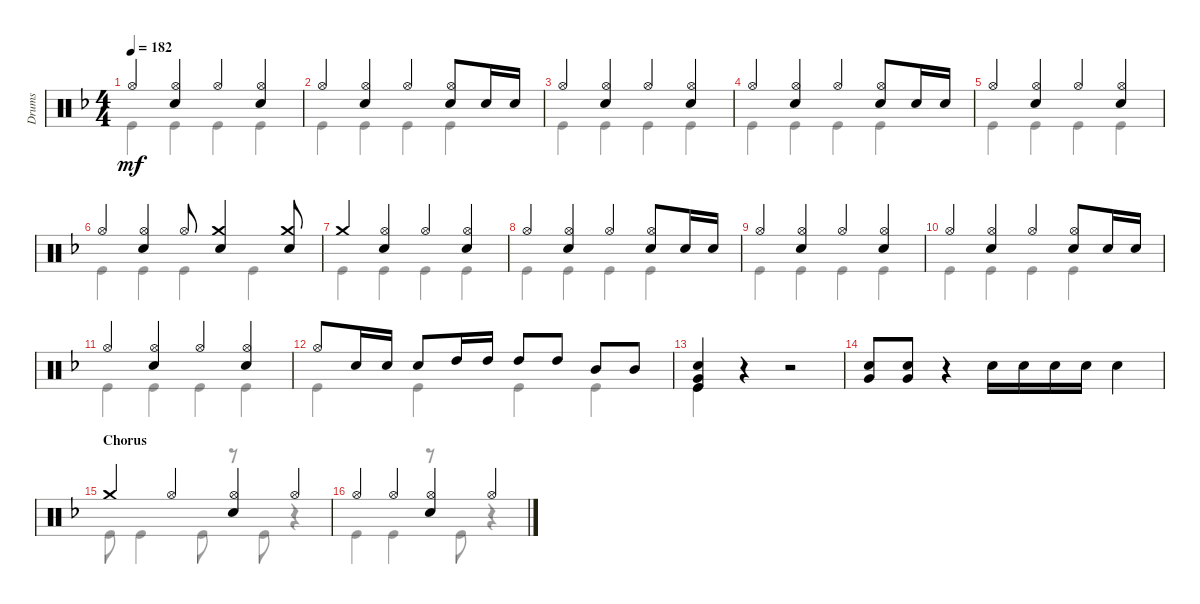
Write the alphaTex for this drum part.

\track ("Drums" "Drums") {instrument percussion}
\staff {score}
\articulation defaults
\voice
\ts (4 4)
\tempo 182
\clef neutral
\ks f "Hi-Hat (open)".4{dy mf}
("Hi-Hat (open)" "Snare (hit) 2").4 "Hi-Hat (open)".4 ("Hi-Hat (open)" "Snare (hit) 2").4 |
"Hi-Hat (open)".4 ("Hi-Hat (open)" "Snare (hit) 2").4 "Hi-Hat (open)".4 ("Hi-Hat (open)" "Snare (hit) 2").8 "Snare (hit) 2".16 "Snare (hit) 2".16 |
"Hi-Hat (open)".4 ("Hi-Hat (open)" "Snare (hit) 2").4 "Hi-Hat (open)".4 ("Hi-Hat (open)" "Snare (hit) 2").4 |
"Hi-Hat (open)".4 ("Hi-Hat (open)" "Snare (hit) 2").4 "Hi-Hat (open)".4 ("Hi-Hat (open)" "Snare (hit) 2").8 "Snare (hit) 2".16 "Snare (hit) 2".16 |
"Hi-Hat (open)".4 ("Hi-Hat (open)" "Snare (hit) 2").4 "Hi-Hat (open)".4 ("Hi-Hat (open)" "Snare (hit) 2").4 |
"Hi-Hat (open)".4 ("Hi-Hat (open)" "Snare (hit) 2").4 "Hi-Hat (open)".8 ("Crash medium (hit)" "Snare (hit) 2").4 ("Snare (hit) 2" "Crash medium (hit)").8 |
"Crash medium (hit)".4 ("Hi-Hat (open)" "Snare (hit) 2").4 "Hi-Hat (open)".4 ("Hi-Hat (open)" "Snare (hit) 2").4 |
"Hi-Hat (open)".4 ("Hi-Hat (open)" "Snare (hit) 2").4 "Hi-Hat (open)".4 ("Hi-Hat (open)" "Snare (hit) 2").8 "Snare (hit) 2".16 "Snare (hit) 2".16 |
"Hi-Hat (open)".4 ("Hi-Hat (open)" "Snare (hit) 2").4 "Hi-Hat (open)".4 ("Hi-Hat (open)" "Snare (hit) 2").4 |
"Hi-Hat (open)".4 ("Hi-Hat (open)" "Snare (hit) 2").4 "Hi-Hat (open)".4 ("Hi-Hat (open)" "Snare (hit) 2").8 "Snare (hit) 2".16 "Snare (hit) 2".16 |
"Hi-Hat (open)".4 ("Hi-Hat (open)" "Snare (hit) 2").4 "Hi-Hat (open)".4 ("Hi-Hat (open)" "Snare (hit) 2").4 |
"Hi-Hat (open)".8 "Snare (hit) 2".16 "Snare (hit) 2".16 "Snare (hit) 2".8 "High Tom (hit)".16 "High Tom (hit)".16 "High Tom (hit)".8 "High Tom (hit)".8 "Mid Tom (hit)".8 "Mid Tom (hit)".8 |
("Snare (hit) 2" "Very Low Tom (hit)" "Kick (hit)").4 r.4 r.2 |
("Very Low Tom (hit)" "Snare (hit) 2").8 ("Snare (hit) 2" "Very Low Tom (hit)").8 r.4 "Snare (hit) 2".16 "Snare (hit) 2".16 "Snare (hit) 2".16 "Snare (hit) 2".16 "Snare (hit) 2".4 |
\section ("" "Chorus")
"Crash medium (hit)".4 "Hi-Hat (open)".4 ("Hi-Hat (open)" "Snare (hit) 2").4 "Hi-Hat (open)".4 |
"Hi-Hat (open)".4 "Hi-Hat (open)".4 ("Hi-Hat (open)" "Snare (hit) 2").4 "Hi-Hat (open)".4
\voice
\clef neutral
\ottava regular
\simile none
\ks f "Kick (hit)".4{dy mf} "Kick (hit)".4 "Kick (hit)".4 "Kick (hit)".4
|
"Kick (hit)".4 "Kick (hit)".4 "Kick (hit)".4 "Kick (hit)".4 |
"Kick (hit)".4 "Kick (hit)".4 "Kick (hit)".4 "Kick (hit)".4 |
"Kick (hit)".4 "Kick (hit)".4 "Kick (hit)".4 "Kick (hit)".4 |
"Kick (hit)".4 "Kick (hit)".4 "Kick (hit)".4 "Kick (hit)".4 |
"Kick (hit)".4 "Kick (hit)".4 "Kick (hit)".4 "Kick (hit)".4 |
"Kick (hit)".4 "Kick (hit)".4 "Kick (hit)".4 "Kick (hit)".4 |
"Kick (hit)".4 "Kick (hit)".4 "Kick (hit)".4 "Kick (hit)".4 |
"Kick (hit)".4 "Kick (hit)".4 "Kick (hit)".4 "Kick (hit)".4 |
"Kick (hit)".4 "Kick (hit)".4 "Kick (hit)".4 "Kick (hit)".4 |
"Kick (hit)".4 "Kick (hit)".4 "Kick (hit)".4 "Kick (hit)".4 |
"Kick (hit)".4 "Kick (hit)".4 "Kick (hit)".4 "Kick (hit)".4 |
"Kick (hit)".4 r.4 r.2 |
|
"Kick (hit)".8 "Kick (hit)".4 "Kick (hit)".8 r.8 "Kick (hit)".8 r.4 |
"Kick (hit)".4 "Kick (hit)".4 r.8 "Kick (hit)".8 r.4
